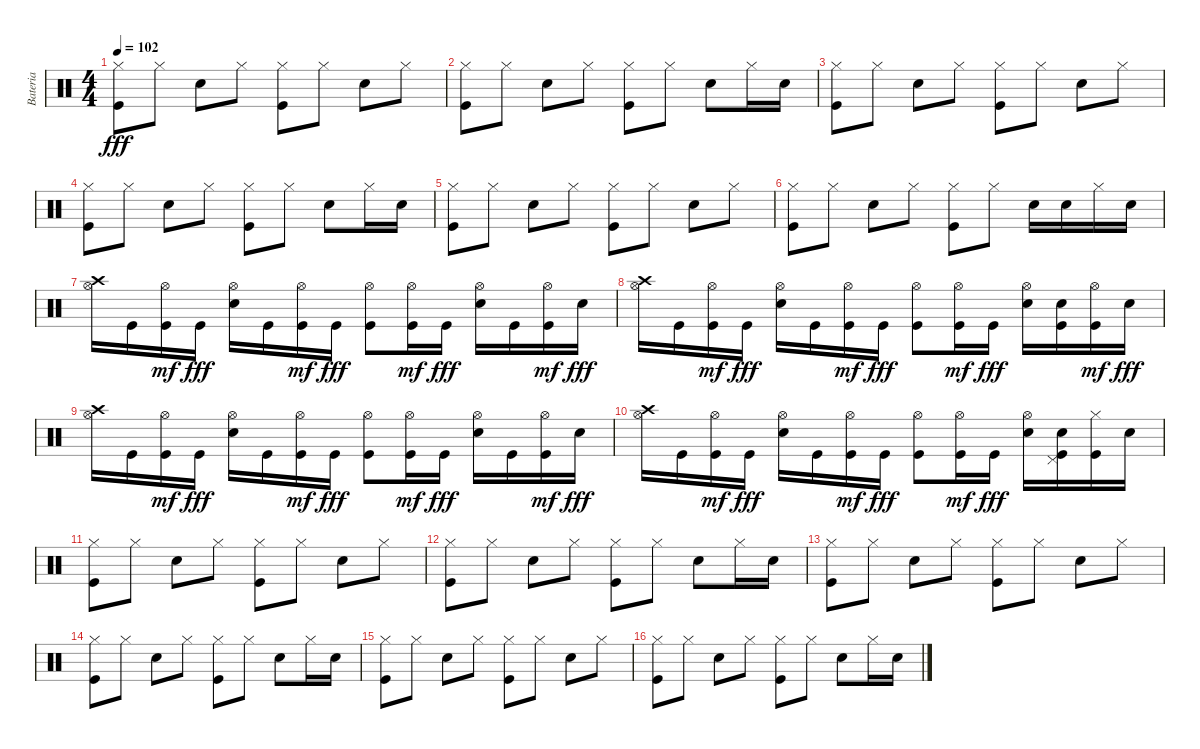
\track ("Bateria" "Bateria") {instrument percussion}
\staff {score}
\articulation defaults
\ts (4 4)
\tempo 102
\clef neutral
\ks c
("Kick (hit)" "Hi-Hat (closed)").8{dy fff} "Hi-Hat (closed)".8 "Snare (hit) 2".8 "Hi-Hat (closed)".8 ("Kick (hit)" "Hi-Hat (closed)").8 "Hi-Hat (closed)".8 "Snare (hit) 2".8 "Hi-Hat (closed)".8 |
("Kick (hit)" "Hi-Hat (closed)").8 "Hi-Hat (closed)".8 "Snare (hit) 2".8 "Hi-Hat (closed)".8 ("Kick (hit)" "Hi-Hat (closed)").8 "Hi-Hat (closed)".8 "Snare (hit) 2".8 "Hi-Hat (closed)".16 "Snare (hit) 2".16 |
("Kick (hit)" "Hi-Hat (closed)").8 "Hi-Hat (closed)".8 "Snare (hit) 2".8 "Hi-Hat (closed)".8 ("Kick (hit)" "Hi-Hat (closed)").8 "Hi-Hat (closed)".8 "Snare (hit) 2".8 "Hi-Hat (closed)".8 |
("Kick (hit)" "Hi-Hat (closed)").8 "Hi-Hat (closed)".8 "Snare (hit) 2".8 "Hi-Hat (closed)".8 ("Kick (hit)" "Hi-Hat (closed)").8 "Hi-Hat (closed)".8 "Snare (hit) 2".8 "Hi-Hat (closed)".16 "Snare (hit) 2".16 |
("Kick (hit)" "Hi-Hat (closed)").8 "Hi-Hat (closed)".8 "Snare (hit) 2".8 "Hi-Hat (closed)".8 ("Kick (hit)" "Hi-Hat (closed)").8 "Hi-Hat (closed)".8 "Snare (hit) 2".8 "Hi-Hat (closed)".8 |
("Kick (hit)" "Hi-Hat (closed)").8 "Hi-Hat (closed)".8 "Snare (hit) 2".8 "Hi-Hat (closed)".8 ("Kick (hit)" "Hi-Hat (closed)").8 "Hi-Hat (closed)".8 "Snare (hit) 2".16 "Snare (hit) 2".16 "Hi-Hat (closed)".16 "Snare (hit) 2".16 |
("Crash high (hit)" "Hi-Hat (open)").16 "Kick (hit)".16 ("Kick (hit)" "Hi-Hat (open)").16{dy mf} "Kick (hit)".16{dy fff} ("Snare (hit) 2" "Hi-Hat (open)").16 "Kick (hit)".16 ("Kick (hit)" "Hi-Hat (open)").16{dy mf} "Kick (hit)".16{dy fff} ("Kick (hit)" "Hi-Hat (open)").8 ("Kick (hit)" "Hi-Hat (open)").16{dy mf} "Kick (hit)".16{dy fff} ("Snare (hit) 2" "Hi-Hat (open)").16 "Kick (hit)".16 ("Kick (hit)" "Hi-Hat (open)").16{dy mf} "Snare (hit) 2".16{dy fff} |
("Crash high (hit)" "Hi-Hat (open)").16 "Kick (hit)".16 ("Kick (hit)" "Hi-Hat (open)").16{dy mf} "Kick (hit)".16{dy fff} ("Snare (hit) 2" "Hi-Hat (open)").16 "Kick (hit)".16 ("Kick (hit)" "Hi-Hat (open)").16{dy mf} "Kick (hit)".16{dy fff} ("Kick (hit)" "Hi-Hat (open)").8 ("Kick (hit)" "Hi-Hat (open)").16{dy mf} "Kick (hit)".16{dy fff} ("Snare (hit) 2" "Hi-Hat (open)").16 ("Kick (hit)" "Snare (hit) 2").16 ("Kick (hit)" "Hi-Hat (open)").16{dy mf} "Snare (hit) 2".16{dy fff} |
("Crash high (hit)" "Hi-Hat (open)").16 "Kick (hit)".16 ("Kick (hit)" "Hi-Hat (open)").16{dy mf} "Kick (hit)".16{dy fff} ("Snare (hit) 2" "Hi-Hat (open)").16 "Kick (hit)".16 ("Kick (hit)" "Hi-Hat (open)").16{dy mf} "Kick (hit)".16{dy fff} ("Kick (hit)" "Hi-Hat (open)").8 ("Kick (hit)" "Hi-Hat (open)").16{dy mf} "Kick (hit)".16{dy fff} ("Snare (hit) 2" "Hi-Hat (open)").16 "Kick (hit)".16 ("Kick (hit)" "Hi-Hat (open)").16{dy mf} "Snare (hit) 2".16{dy fff} |
("Crash high (hit)" "Hi-Hat (open)").16 "Kick (hit)".16 ("Kick (hit)" "Hi-Hat (open)").16{dy mf} "Kick (hit)".16{dy fff} ("Snare (hit) 2" "Hi-Hat (open)").16 "Kick (hit)".16 ("Kick (hit)" "Hi-Hat (open)").16{dy mf} "Kick (hit)".16{dy fff} ("Kick (hit)" "Hi-Hat (open)").8 ("Kick (hit)" "Hi-Hat (open)").16{dy mf} "Kick (hit)".16{dy fff} ("Snare (hit) 2" "Hi-Hat (open)").16 ("Kick (hit)" "Snare (hit) 2" "Pedal Hi-Hat (hit)").16 ("Kick (hit)" "Hi-Hat (closed)").16 "Snare (hit) 2".16 |
("Kick (hit)" "Hi-Hat (closed)").8 "Hi-Hat (closed)".8 "Snare (hit) 2".8 "Hi-Hat (closed)".8 ("Kick (hit)" "Hi-Hat (closed)").8 "Hi-Hat (closed)".8 "Snare (hit) 2".8 "Hi-Hat (closed)".8 |
("Kick (hit)" "Hi-Hat (closed)").8 "Hi-Hat (closed)".8 "Snare (hit) 2".8 "Hi-Hat (closed)".8 ("Kick (hit)" "Hi-Hat (closed)").8 "Hi-Hat (closed)".8 "Snare (hit) 2".8 "Hi-Hat (closed)".16 "Snare (hit) 2".16 |
("Kick (hit)" "Hi-Hat (closed)").8 "Hi-Hat (closed)".8 "Snare (hit) 2".8 "Hi-Hat (closed)".8 ("Kick (hit)" "Hi-Hat (closed)").8 "Hi-Hat (closed)".8 "Snare (hit) 2".8 "Hi-Hat (closed)".8 |
("Kick (hit)" "Hi-Hat (closed)").8 "Hi-Hat (closed)".8 "Snare (hit) 2".8 "Hi-Hat (closed)".8 ("Kick (hit)" "Hi-Hat (closed)").8 "Hi-Hat (closed)".8 "Snare (hit) 2".8 "Hi-Hat (closed)".16 "Snare (hit) 2".16 |
("Kick (hit)" "Hi-Hat (closed)").8 "Hi-Hat (closed)".8 "Snare (hit) 2".8 "Hi-Hat (closed)".8 ("Kick (hit)" "Hi-Hat (closed)").8 "Hi-Hat (closed)".8 "Snare (hit) 2".8 "Hi-Hat (closed)".8 |
("Kick (hit)" "Hi-Hat (closed)").8 "Hi-Hat (closed)".8 "Snare (hit) 2".8 "Hi-Hat (closed)".8 ("Kick (hit)" "Hi-Hat (closed)").8 "Hi-Hat (closed)".8 "Snare (hit) 2".8 "Hi-Hat (closed)".16 "Snare (hit) 2".16
